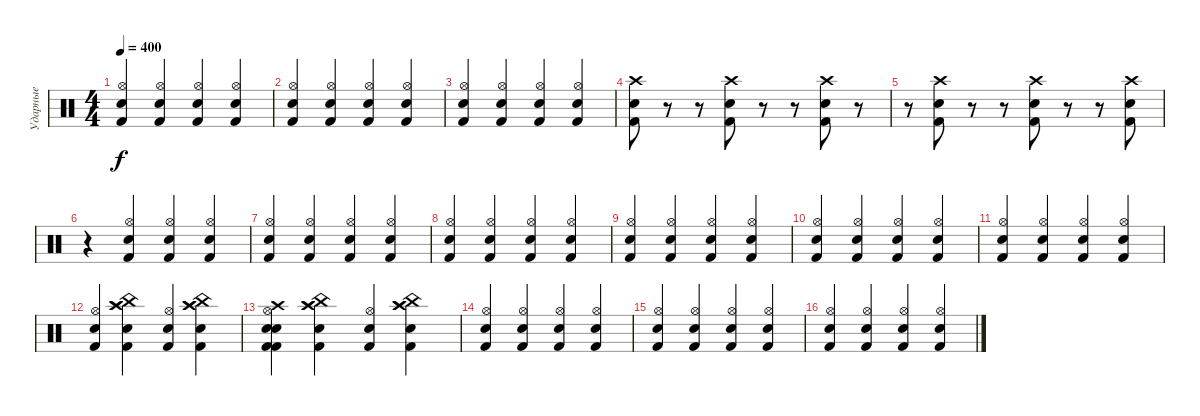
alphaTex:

\track ("Ударные" "Ударные") {instrument percussion}
\staff {score}
\articulation defaults
\ts (4 4)
\tempo 400
\clef neutral
\ks c
("Kick (hit) 2" "Hi-Hat (open)" "Electric Snare (hit)").4{dy f} ("Hi-Hat (open)" "Kick (hit) 2" "Electric Snare (hit)").4 ("Electric Snare (hit)" "Kick (hit) 2" "Hi-Hat (open)").4 ("Hi-Hat (open)" "Kick (hit) 2" "Electric Snare (hit)").4 |
("Kick (hit) 2" "Hi-Hat (open)" "Electric Snare (hit)").4 ("Hi-Hat (open)" "Kick (hit) 2" "Electric Snare (hit)").4 ("Electric Snare (hit)" "Kick (hit) 2" "Hi-Hat (open)").4 ("Hi-Hat (open)" "Kick (hit) 2" "Electric Snare (hit)").4 |
("Kick (hit) 2" "Hi-Hat (open)" "Electric Snare (hit)").4 ("Hi-Hat (open)" "Kick (hit) 2" "Electric Snare (hit)").4 ("Electric Snare (hit)" "Kick (hit) 2" "Hi-Hat (open)").4 ("Hi-Hat (open)" "Kick (hit) 2" "Electric Snare (hit)").4 |
("Kick (hit) 2" "Electric Snare (hit)" "Crash high (hit)").8 r.8 r.8 ("Kick (hit) 2" "Electric Snare (hit)" "Crash high (hit)").8 r.8 r.8 ("Crash high (hit)" "Kick (hit) 2" "Electric Snare (hit)").8 r.8 |
r.8 ("Electric Snare (hit)" "Kick (hit) 2" "Crash high (hit)").8 r.8 r.8 ("Crash high (hit)" "Kick (hit) 2" "Electric Snare (hit)").8 r.8 r.8 ("Electric Snare (hit)" "Kick (hit) 2" "Crash high (hit)").8 |
r.4 ("Kick (hit) 2" "Electric Snare (hit)" "Hi-Hat (open)").4 ("Hi-Hat (open)" "Kick (hit) 2" "Electric Snare (hit)").4 ("Electric Snare (hit)" "Kick (hit) 2" "Hi-Hat (open)").4 |
("Electric Snare (hit)" "Kick (hit) 2" "Hi-Hat (open)").4 ("Kick (hit) 2" "Electric Snare (hit)" "Hi-Hat (open)").4 ("Hi-Hat (open)" "Kick (hit) 2" "Electric Snare (hit)").4 ("Electric Snare (hit)" "Kick (hit) 2" "Hi-Hat (open)").4 |
("Electric Snare (hit)" "Kick (hit) 2" "Hi-Hat (open)").4 ("Kick (hit) 2" "Electric Snare (hit)" "Hi-Hat (open)").4 ("Hi-Hat (open)" "Kick (hit) 2" "Electric Snare (hit)").4 ("Electric Snare (hit)" "Kick (hit) 2" "Hi-Hat (open)").4 |
("Electric Snare (hit)" "Kick (hit) 2" "Hi-Hat (open)").4 ("Kick (hit) 2" "Electric Snare (hit)" "Hi-Hat (open)").4 ("Hi-Hat (open)" "Kick (hit) 2" "Electric Snare (hit)").4 ("Electric Snare (hit)" "Kick (hit) 2" "Hi-Hat (open)").4 |
("Electric Snare (hit)" "Kick (hit) 2" "Hi-Hat (open)").4 ("Kick (hit) 2" "Electric Snare (hit)" "Hi-Hat (open)").4 ("Hi-Hat (open)" "Kick (hit) 2" "Electric Snare (hit)").4 ("Electric Snare (hit)" "Kick (hit) 2" "Hi-Hat (open)").4 |
("Electric Snare (hit)" "Kick (hit) 2" "Hi-Hat (open)").4 ("Kick (hit) 2" "Electric Snare (hit)" "Hi-Hat (open)").4 ("Hi-Hat (open)" "Kick (hit) 2" "Electric Snare (hit)").4 ("Electric Snare (hit)" "Kick (hit) 2" "Hi-Hat (open)").4 |
("Hi-Hat (open)" "Kick (hit) 2" "Electric Snare (hit)").4 ("Electric Snare (hit)" "Kick (hit) 2" "Crash high (hit)" "Crash high (hit)" "China (hit)").4 ("Hi-Hat (open)" "Kick (hit) 2" "Electric Snare (hit)").4 ("Crash high (hit)" "Kick (hit) 2" "Electric Snare (hit)" "China (hit)" "Crash high (hit)").4 |
("Crash high (hit)" "Kick (hit) 2" "Electric Snare (hit)" "Electric Snare (hit)" "Kick (hit) 2" "Hi-Hat (open)").4 ("Electric Snare (hit)" "Kick (hit) 2" "Crash high (hit)" "Crash high (hit)" "China (hit)").4 ("Hi-Hat (open)" "Kick (hit) 2" "Electric Snare (hit)").4 ("Crash high (hit)" "Kick (hit) 2" "Electric Snare (hit)" "China (hit)" "Crash high (hit)").4 |
("Electric Snare (hit)" "Kick (hit) 2" "Hi-Hat (open)").4 ("Kick (hit) 2" "Electric Snare (hit)" "Hi-Hat (open)").4 ("Hi-Hat (open)" "Kick (hit) 2" "Electric Snare (hit)").4 ("Electric Snare (hit)" "Kick (hit) 2" "Hi-Hat (open)").4 |
("Electric Snare (hit)" "Kick (hit) 2" "Hi-Hat (open)").4 ("Kick (hit) 2" "Electric Snare (hit)" "Hi-Hat (open)").4 ("Hi-Hat (open)" "Kick (hit) 2" "Electric Snare (hit)").4 ("Electric Snare (hit)" "Kick (hit) 2" "Hi-Hat (open)").4 |
("Electric Snare (hit)" "Kick (hit) 2" "Hi-Hat (open)").4 ("Kick (hit) 2" "Electric Snare (hit)" "Hi-Hat (open)").4 ("Hi-Hat (open)" "Kick (hit) 2" "Electric Snare (hit)").4 ("Electric Snare (hit)" "Kick (hit) 2" "Hi-Hat (open)").4
